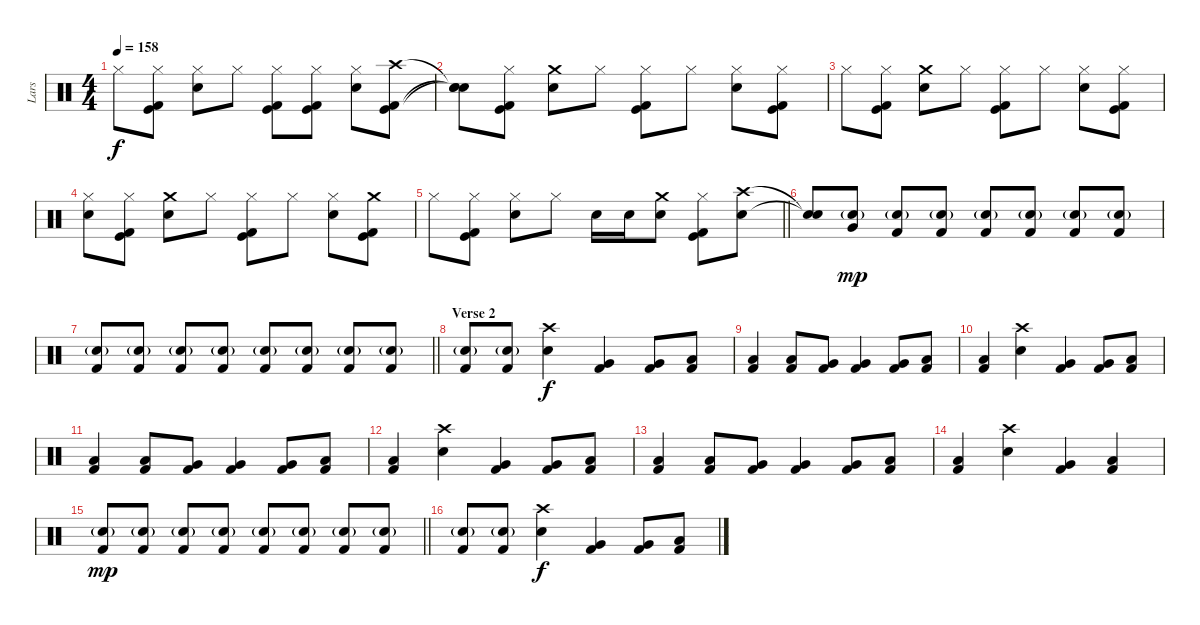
\track ("Lars" "Lars") {instrument percussion}
\staff {score}
\articulation defaults
\ts (4 4)
\tempo 158
\clef neutral
\ks c "Hi-Hat (closed)".8{dy f}
("Hi-Hat (closed)" "Kick (hit)" "Kick (hit) 2").8 ("Hi-Hat (closed)" "Electric Snare (hit)").8 "Hi-Hat (closed)".8 ("Hi-Hat (closed)" "Kick (hit)" "Kick (hit) 2").8 ("Hi-Hat (closed)" "Kick (hit)" "Kick (hit) 2").8 ("Hi-Hat (closed)" "Electric Snare (hit)").8 ("Crash high (hit)" "Kick (hit)" "Kick (hit) 2").8 |
("Snare (hit)"{t} "Snare (hit)"{t} "Snare (hit)"{t}).8 ("Hi-Hat (closed)" "Kick (hit)" "Kick (hit) 2").8 ("Crash medium (hit)" "Electric Snare (hit)").8 "Hi-Hat (closed)".8 ("Hi-Hat (closed)" "Kick (hit)" "Kick (hit) 2").8 "Hi-Hat (closed)".8 ("Hi-Hat (closed)" "Electric Snare (hit)").8 ("Hi-Hat (closed)" "Kick (hit)" "Kick (hit) 2").8 |
"Hi-Hat (closed)".8 ("Hi-Hat (closed)" "Kick (hit)" "Kick (hit) 2").8 ("Crash medium (hit)" "Electric Snare (hit)").8 "Hi-Hat (closed)".8 ("Hi-Hat (closed)" "Kick (hit)" "Kick (hit) 2").8 "Hi-Hat (closed)".8 ("Hi-Hat (closed)" "Electric Snare (hit)").8 ("Hi-Hat (closed)" "Kick (hit)" "Kick (hit) 2").8 |
("Hi-Hat (closed)" "Electric Snare (hit)").8 ("Hi-Hat (closed)" "Kick (hit)" "Kick (hit) 2").8 ("Crash medium (hit)" "Electric Snare (hit)").8 "Hi-Hat (closed)".8 ("Hi-Hat (closed)" "Kick (hit)" "Kick (hit) 2").8 "Hi-Hat (closed)".8 ("Hi-Hat (closed)" "Electric Snare (hit)").8 ("Crash medium (hit)" "Kick (hit)" "Kick (hit) 2").8 |
\barLineRight lightlight "Hi-Hat (closed)".8
("Hi-Hat (closed)" "Kick (hit)" "Kick (hit) 2").8 ("Hi-Hat (closed)" "Electric Snare (hit)").8 "Hi-Hat (closed)".8 "Electric Snare (hit)".16 "Electric Snare (hit)".16 ("Crash medium (hit)" "Electric Snare (hit)").8 ("Hi-Hat (closed)" "Kick (hit)" "Kick (hit) 2").8 ("Crash high (hit)" "Electric Snare (hit)").8 |
\section ("" "")
("Snare (hit)"{t} "Snare (hit)"{t}).8 ("Electric Snare (hit)"{g} "Very Low Tom (hit)").8{dy mp} ("Electric Snare (hit)"{g} "Kick (hit) 2").8 ("Electric Snare (hit)"{g} "Kick (hit) 2").8 ("Electric Snare (hit)"{g} "Kick (hit) 2").8 ("Electric Snare (hit)"{g} "Kick (hit) 2").8 ("Electric Snare (hit)"{g} "Kick (hit) 2").8 ("Electric Snare (hit)"{g} "Kick (hit) 2").8 |
\barLineRight lightlight
("Electric Snare (hit)"{g} "Kick (hit) 2").8 ("Electric Snare (hit)"{g} "Kick (hit) 2").8 ("Electric Snare (hit)"{g} "Kick (hit) 2").8 ("Electric Snare (hit)"{g} "Kick (hit) 2").8 ("Electric Snare (hit)"{g} "Kick (hit) 2").8 ("Electric Snare (hit)"{g} "Kick (hit) 2").8 ("Electric Snare (hit)"{g} "Kick (hit) 2").8 ("Electric Snare (hit)"{g} "Kick (hit) 2").8 |
\section ("" "Verse 2")
("Electric Snare (hit)"{g} "Kick (hit) 2").8 ("Electric Snare (hit)"{g} "Kick (hit) 2").8 ("Crash high (hit)" "Electric Snare (hit)").4{dy f} ("Kick (hit) 2" "Very Low Tom (hit)").4 ("Kick (hit) 2" "Very Low Tom (hit)").8 ("Kick (hit) 2" "Low Floor Tom (hit)").8 |
("Kick (hit) 2" "Low Tom (hit)").4 ("Kick (hit) 2" "Low Tom (hit)").8 ("Kick (hit) 2" "Very Low Tom (hit)").8 ("Kick (hit) 2" "Very Low Tom (hit)").4 ("Kick (hit) 2" "Very Low Tom (hit)").8 ("Kick (hit) 2" "Low Floor Tom (hit)").8 |
("Kick (hit) 2" "Low Tom (hit)").4 ("Crash high (hit)" "Electric Snare (hit)").4 ("Kick (hit) 2" "Very Low Tom (hit)").4 ("Kick (hit) 2" "Very Low Tom (hit)").8 ("Kick (hit) 2" "Low Floor Tom (hit)").8 |
("Kick (hit) 2" "Low Tom (hit)").4 ("Kick (hit) 2" "Low Tom (hit)").8 ("Kick (hit) 2" "Very Low Tom (hit)").8 ("Kick (hit) 2" "Very Low Tom (hit)").4 ("Kick (hit) 2" "Very Low Tom (hit)").8 ("Kick (hit) 2" "Low Floor Tom (hit)").8 |
("Kick (hit) 2" "Low Tom (hit)").4 ("Crash high (hit)" "Electric Snare (hit)").4 ("Kick (hit) 2" "Very Low Tom (hit)").4 ("Kick (hit) 2" "Very Low Tom (hit)").8 ("Kick (hit) 2" "Low Floor Tom (hit)").8 |
("Kick (hit) 2" "Low Tom (hit)").4 ("Kick (hit) 2" "Low Tom (hit)").8 ("Kick (hit) 2" "Very Low Tom (hit)").8 ("Kick (hit) 2" "Very Low Tom (hit)").4 ("Kick (hit) 2" "Very Low Tom (hit)").8 ("Kick (hit) 2" "Low Floor Tom (hit)").8 |
("Kick (hit) 2" "Low Tom (hit)").4 ("Crash high (hit)" "Electric Snare (hit)").4 ("Kick (hit) 2" "Very Low Tom (hit)").4 ("Kick (hit) 2" "Low Floor Tom (hit)").4 |
\barLineRight lightlight
("Electric Snare (hit)"{g} "Kick (hit) 2").8{dy mp} ("Electric Snare (hit)"{g} "Kick (hit) 2").8 ("Electric Snare (hit)"{g} "Kick (hit) 2").8 ("Electric Snare (hit)"{g} "Kick (hit) 2").8 ("Electric Snare (hit)"{g} "Kick (hit) 2").8 ("Electric Snare (hit)"{g} "Kick (hit) 2").8 ("Electric Snare (hit)"{g} "Kick (hit) 2").8 ("Electric Snare (hit)"{g} "Kick (hit) 2").8 |
\section ("" "")
("Electric Snare (hit)"{g} "Kick (hit) 2").8 ("Electric Snare (hit)"{g} "Kick (hit) 2").8 ("Crash high (hit)" "Electric Snare (hit)").4{dy f} ("Kick (hit) 2" "Very Low Tom (hit)").4 ("Kick (hit) 2" "Very Low Tom (hit)").8 ("Kick (hit) 2" "Low Floor Tom (hit)").8
